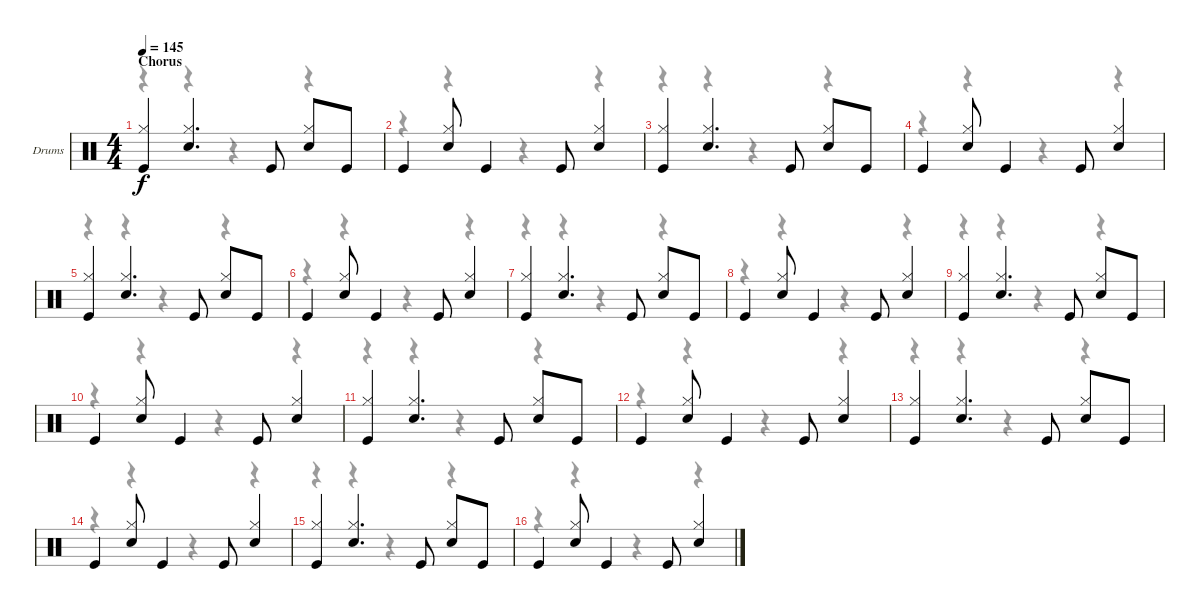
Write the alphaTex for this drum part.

\bracketExtendMode groupsimilarinstruments
\firstSystemTrackNameOrientation horizontal
\otherSystemsTrackNameOrientation horizontal
\track ("Drumkit" "Drums") {solo instrument percussion}
\staff {score}
\articulation defaults
\voice
\ts (4 4)
\section ("" "Chorus")
\tempo 145
\clef neutral
\ks c
("Kick (hit)" "Hi-Hat (closed)").4{dy f} ("Snare (hit) 2" "Hi-Hat (closed)").4{d} "Kick (hit)".8 ("Snare (hit) 2" "Hi-Hat (closed)").8 "Kick (hit)".8 |
"Kick (hit)".4 ("Snare (hit) 2" "Hi-Hat (closed)").8 "Kick (hit)".4 "Kick (hit)".8 ("Snare (hit) 2" "Hi-Hat (closed)").4 |
("Kick (hit)" "Hi-Hat (closed)").4 ("Snare (hit) 2" "Hi-Hat (closed)").4{d} "Kick (hit)".8 ("Snare (hit) 2" "Hi-Hat (closed)").8 "Kick (hit)".8 |
"Kick (hit)".4 ("Snare (hit) 2" "Hi-Hat (closed)").8 "Kick (hit)".4 "Kick (hit)".8 ("Snare (hit) 2" "Hi-Hat (closed)").4 |
("Kick (hit)" "Hi-Hat (closed)").4 ("Snare (hit) 2" "Hi-Hat (closed)").4{d} "Kick (hit)".8 ("Snare (hit) 2" "Hi-Hat (closed)").8 "Kick (hit)".8 |
"Kick (hit)".4 ("Snare (hit) 2" "Hi-Hat (closed)").8 "Kick (hit)".4 "Kick (hit)".8 ("Snare (hit) 2" "Hi-Hat (closed)").4 |
("Kick (hit)" "Hi-Hat (closed)").4 ("Snare (hit) 2" "Hi-Hat (closed)").4{d} "Kick (hit)".8 ("Snare (hit) 2" "Hi-Hat (closed)").8 "Kick (hit)".8 |
"Kick (hit)".4 ("Snare (hit) 2" "Hi-Hat (closed)").8 "Kick (hit)".4 "Kick (hit)".8 ("Snare (hit) 2" "Hi-Hat (closed)").4 |
("Kick (hit)" "Hi-Hat (closed)").4 ("Snare (hit) 2" "Hi-Hat (closed)").4{d} "Kick (hit)".8 ("Snare (hit) 2" "Hi-Hat (closed)").8 "Kick (hit)".8 |
"Kick (hit)".4 ("Snare (hit) 2" "Hi-Hat (closed)").8 "Kick (hit)".4 "Kick (hit)".8 ("Snare (hit) 2" "Hi-Hat (closed)").4 |
("Kick (hit)" "Hi-Hat (closed)").4 ("Snare (hit) 2" "Hi-Hat (closed)").4{d} "Kick (hit)".8 ("Snare (hit) 2" "Hi-Hat (closed)").8 "Kick (hit)".8 |
"Kick (hit)".4 ("Snare (hit) 2" "Hi-Hat (closed)").8 "Kick (hit)".4 "Kick (hit)".8 ("Snare (hit) 2" "Hi-Hat (closed)").4 |
("Kick (hit)" "Hi-Hat (closed)").4 ("Snare (hit) 2" "Hi-Hat (closed)").4{d} "Kick (hit)".8 ("Snare (hit) 2" "Hi-Hat (closed)").8 "Kick (hit)".8 |
"Kick (hit)".4 ("Snare (hit) 2" "Hi-Hat (closed)").8 "Kick (hit)".4 "Kick (hit)".8 ("Snare (hit) 2" "Hi-Hat (closed)").4 |
("Kick (hit)" "Hi-Hat (closed)").4 ("Snare (hit) 2" "Hi-Hat (closed)").4{d} "Kick (hit)".8 ("Snare (hit) 2" "Hi-Hat (closed)").8 "Kick (hit)".8 |
"Kick (hit)".4 ("Snare (hit) 2" "Hi-Hat (closed)").8 "Kick (hit)".4 "Kick (hit)".8 ("Snare (hit) 2" "Hi-Hat (closed)").4
\voice
\clef neutral
\ottava regular
\simile none
\ks c
r.4{dy mf} r.4 r.4 r.4 |
r.4 r.4 r.4 r.4 |
r.4 r.4 r.4 r.4 |
r.4 r.4 r.4 r.4 |
r.4 r.4 r.4 r.4 |
r.4 r.4 r.4 r.4 |
r.4 r.4 r.4 r.4 |
r.4 r.4 r.4 r.4 |
r.4 r.4 r.4 r.4 |
r.4 r.4 r.4 r.4 |
r.4 r.4 r.4 r.4 |
r.4 r.4 r.4 r.4 |
r.4 r.4 r.4 r.4 |
r.4 r.4 r.4 r.4 |
r.4 r.4 r.4 r.4 |
r.4 r.4 r.4 r.4
